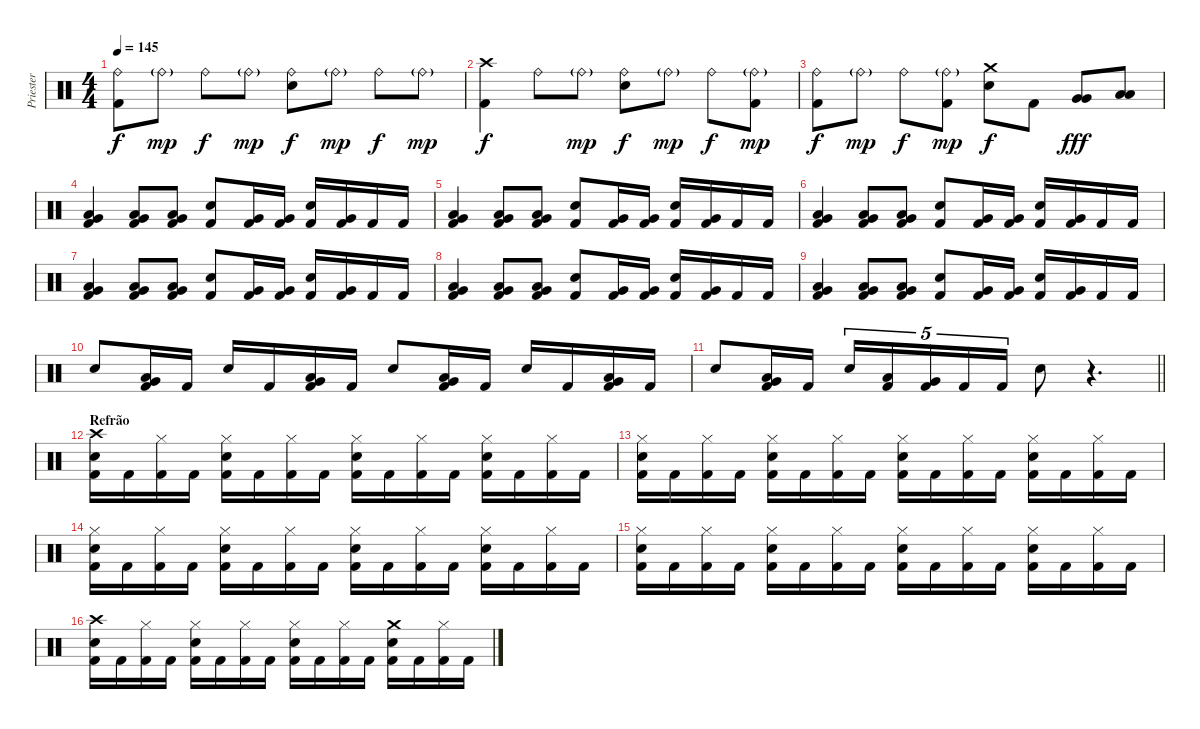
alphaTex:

\track ("Priester" "Priester") {instrument percussion}
\staff {score}
\articulation defaults
\ts (4 4)
\tempo 145
\clef neutral
\ks c
("Ride (bell)" "Kick (hit) 2").8{dy f} "Ride (bell)"{g}.8{dy mp} "Ride (bell)".8{dy f} "Ride (bell)"{g}.8{dy mp} ("Ride (bell)" "Electric Snare (hit)").8{dy f} "Ride (bell)"{g}.8{dy mp} "Ride (bell)".8{dy f} "Ride (bell)"{g}.8{dy mp} |
("Crash high (hit)" "Kick (hit) 2").4{dy f} "Ride (bell)".8 "Ride (bell)"{g}.8{dy mp} ("Ride (bell)" "Electric Snare (hit)").8{dy f} "Ride (bell)"{g}.8{dy mp} "Ride (bell)".8{dy f} ("Ride (bell)"{g} "Kick (hit) 2").8{dy mp} |
("Ride (bell)" "Kick (hit) 2").8{dy f} "Ride (bell)"{g}.8{dy mp} "Ride (bell)".8{dy f} ("Ride (bell)"{g} "Kick (hit) 2").8{dy mp} ("Crash medium (hit)" "Electric Snare (hit)").8{dy f} "Kick (hit) 2".8 ("Very Low Tom (hit)" "Very Low Tom (hit)").8{dy fff} ("Low Floor Tom (hit)" "Low Floor Tom (hit)").8 |
("Very Low Tom (hit)" "Low Floor Tom (hit)" "Kick (hit) 2").4 ("Very Low Tom (hit)" "Low Floor Tom (hit)" "Kick (hit) 2").8 ("Very Low Tom (hit)" "Low Floor Tom (hit)" "Kick (hit) 2").8 ("Electric Snare (hit)" "Kick (hit) 2").8 ("Very Low Tom (hit)" "Kick (hit) 2").16 ("Very Low Tom (hit)" "Kick (hit) 2").16 ("Electric Snare (hit)" "Kick (hit) 2").16 ("Very Low Tom (hit)" "Kick (hit) 2").16 "Kick (hit) 2".16 "Kick (hit) 2".16 |
("Very Low Tom (hit)" "Low Floor Tom (hit)" "Kick (hit) 2").4 ("Very Low Tom (hit)" "Low Floor Tom (hit)" "Kick (hit) 2").8 ("Very Low Tom (hit)" "Low Floor Tom (hit)" "Kick (hit) 2").8 ("Electric Snare (hit)" "Kick (hit) 2").8 ("Very Low Tom (hit)" "Kick (hit) 2").16 ("Very Low Tom (hit)" "Kick (hit) 2").16 ("Electric Snare (hit)" "Kick (hit) 2").16 ("Very Low Tom (hit)" "Kick (hit) 2").16 "Kick (hit) 2".16 "Kick (hit) 2".16 |
("Very Low Tom (hit)" "Low Floor Tom (hit)" "Kick (hit) 2").4 ("Very Low Tom (hit)" "Low Floor Tom (hit)" "Kick (hit) 2").8 ("Very Low Tom (hit)" "Low Floor Tom (hit)" "Kick (hit) 2").8 ("Electric Snare (hit)" "Kick (hit) 2").8 ("Very Low Tom (hit)" "Kick (hit) 2").16 ("Very Low Tom (hit)" "Kick (hit) 2").16 ("Electric Snare (hit)" "Kick (hit) 2").16 ("Very Low Tom (hit)" "Kick (hit) 2").16 "Kick (hit) 2".16 "Kick (hit) 2".16 |
("Very Low Tom (hit)" "Low Floor Tom (hit)" "Kick (hit) 2").4 ("Very Low Tom (hit)" "Low Floor Tom (hit)" "Kick (hit) 2").8 ("Very Low Tom (hit)" "Low Floor Tom (hit)" "Kick (hit) 2").8 ("Electric Snare (hit)" "Kick (hit) 2").8 ("Very Low Tom (hit)" "Kick (hit) 2").16 ("Very Low Tom (hit)" "Kick (hit) 2").16 ("Electric Snare (hit)" "Kick (hit) 2").16 ("Very Low Tom (hit)" "Kick (hit) 2").16 "Kick (hit) 2".16 "Kick (hit) 2".16 |
("Very Low Tom (hit)" "Low Floor Tom (hit)" "Kick (hit) 2").4 ("Very Low Tom (hit)" "Low Floor Tom (hit)" "Kick (hit) 2").8 ("Very Low Tom (hit)" "Low Floor Tom (hit)" "Kick (hit) 2").8 ("Electric Snare (hit)" "Kick (hit) 2").8 ("Very Low Tom (hit)" "Kick (hit) 2").16 ("Very Low Tom (hit)" "Kick (hit) 2").16 ("Electric Snare (hit)" "Kick (hit) 2").16 ("Very Low Tom (hit)" "Kick (hit) 2").16 "Kick (hit) 2".16 "Kick (hit) 2".16 |
("Very Low Tom (hit)" "Low Floor Tom (hit)" "Kick (hit) 2").4 ("Very Low Tom (hit)" "Low Floor Tom (hit)" "Kick (hit) 2").8 ("Very Low Tom (hit)" "Low Floor Tom (hit)" "Kick (hit) 2").8 ("Electric Snare (hit)" "Kick (hit) 2").8 ("Very Low Tom (hit)" "Kick (hit) 2").16 ("Very Low Tom (hit)" "Kick (hit) 2").16 ("Electric Snare (hit)" "Kick (hit) 2").16 ("Very Low Tom (hit)" "Kick (hit) 2").16 "Kick (hit) 2".16 "Kick (hit) 2".16 |
"Electric Snare (hit)".8 ("Very Low Tom (hit)" "Low Floor Tom (hit)" "Kick (hit) 2").16 "Kick (hit) 2".16 "Electric Snare (hit)".16 "Kick (hit) 2".16 ("Very Low Tom (hit)" "Low Floor Tom (hit)" "Kick (hit) 2").16 "Kick (hit) 2".16 "Electric Snare (hit)".8 ("Very Low Tom (hit)" "Low Floor Tom (hit)" "Kick (hit) 2").16 "Kick (hit) 2".16 "Electric Snare (hit)".16 "Kick (hit) 2".16 ("Very Low Tom (hit)" "Low Floor Tom (hit)" "Kick (hit) 2").16 "Kick (hit) 2".16 |
\barLineRight lightlight "Electric Snare (hit)".8
("Very Low Tom (hit)" "Low Floor Tom (hit)" "Kick (hit) 2").16 "Kick (hit) 2".16 "Electric Snare (hit)".16{tu (5 4)} ("Low Tom (hit)" "Kick (hit) 2").16{tu (5 4)} ("Very Low Tom (hit)" "Kick (hit) 2").16{tu (5 4)} "Kick (hit) 2".16{tu (5 4)} "Kick (hit) 2".16{tu (5 4)} "Electric Snare (hit)".8 r.4{d} |
\section ("" "Refrão")
("Crash high (hit)" "Electric Snare (hit)" "Kick (hit) 2").16 "Kick (hit) 2".16 ("Hi-Hat (closed)" "Kick (hit) 2").16 "Kick (hit) 2".16 ("Hi-Hat (closed)" "Electric Snare (hit)" "Kick (hit) 2").16 "Kick (hit) 2".16 ("Hi-Hat (closed)" "Kick (hit) 2").16 "Kick (hit) 2".16 ("Hi-Hat (closed)" "Electric Snare (hit)" "Kick (hit) 2").16 "Kick (hit) 2".16 ("Hi-Hat (closed)" "Kick (hit) 2").16 "Kick (hit) 2".16 ("Hi-Hat (closed)" "Electric Snare (hit)" "Kick (hit) 2").16 "Kick (hit) 2".16 ("Hi-Hat (closed)" "Kick (hit) 2").16 "Kick (hit) 2".16 |
("Hi-Hat (closed)" "Electric Snare (hit)" "Kick (hit) 2").16 "Kick (hit) 2".16 ("Hi-Hat (closed)" "Kick (hit) 2").16 "Kick (hit) 2".16 ("Hi-Hat (closed)" "Electric Snare (hit)" "Kick (hit) 2").16 "Kick (hit) 2".16 ("Hi-Hat (closed)" "Kick (hit) 2").16 "Kick (hit) 2".16 ("Hi-Hat (closed)" "Electric Snare (hit)" "Kick (hit) 2").16 "Kick (hit) 2".16 ("Hi-Hat (closed)" "Kick (hit) 2").16 "Kick (hit) 2".16 ("Hi-Hat (closed)" "Electric Snare (hit)" "Kick (hit) 2").16 "Kick (hit) 2".16 ("Hi-Hat (closed)" "Kick (hit) 2").16 "Kick (hit) 2".16 |
("Hi-Hat (closed)" "Electric Snare (hit)" "Kick (hit) 2").16 "Kick (hit) 2".16 ("Hi-Hat (closed)" "Kick (hit) 2").16 "Kick (hit) 2".16 ("Hi-Hat (closed)" "Electric Snare (hit)" "Kick (hit) 2").16 "Kick (hit) 2".16 ("Hi-Hat (closed)" "Kick (hit) 2").16 "Kick (hit) 2".16 ("Hi-Hat (closed)" "Electric Snare (hit)" "Kick (hit) 2").16 "Kick (hit) 2".16 ("Hi-Hat (closed)" "Kick (hit) 2").16 "Kick (hit) 2".16 ("Hi-Hat (closed)" "Electric Snare (hit)" "Kick (hit) 2").16 "Kick (hit) 2".16 ("Hi-Hat (closed)" "Kick (hit) 2").16 "Kick (hit) 2".16 |
("Hi-Hat (closed)" "Electric Snare (hit)" "Kick (hit) 2").16 "Kick (hit) 2".16 ("Hi-Hat (closed)" "Kick (hit) 2").16 "Kick (hit) 2".16 ("Hi-Hat (closed)" "Electric Snare (hit)" "Kick (hit) 2").16 "Kick (hit) 2".16 ("Hi-Hat (closed)" "Kick (hit) 2").16 "Kick (hit) 2".16 ("Hi-Hat (closed)" "Electric Snare (hit)" "Kick (hit) 2").16 "Kick (hit) 2".16 ("Hi-Hat (closed)" "Kick (hit) 2").16 "Kick (hit) 2".16 ("Hi-Hat (closed)" "Electric Snare (hit)" "Kick (hit) 2").16 "Kick (hit) 2".16 ("Hi-Hat (closed)" "Kick (hit) 2").16 "Kick (hit) 2".16 |
("Crash high (hit)" "Electric Snare (hit)" "Kick (hit) 2").16 "Kick (hit) 2".16 ("Hi-Hat (closed)" "Kick (hit) 2").16 "Kick (hit) 2".16 ("Hi-Hat (closed)" "Electric Snare (hit)" "Kick (hit) 2").16 "Kick (hit) 2".16 ("Hi-Hat (closed)" "Kick (hit) 2").16 "Kick (hit) 2".16 ("Hi-Hat (closed)" "Electric Snare (hit)" "Kick (hit) 2").16 "Kick (hit) 2".16 ("Hi-Hat (closed)" "Kick (hit) 2").16 "Kick (hit) 2".16 ("Crash medium (hit)" "Electric Snare (hit)" "Kick (hit) 2").16 "Kick (hit) 2".16 ("Hi-Hat (closed)" "Kick (hit) 2").16 "Kick (hit) 2".16
